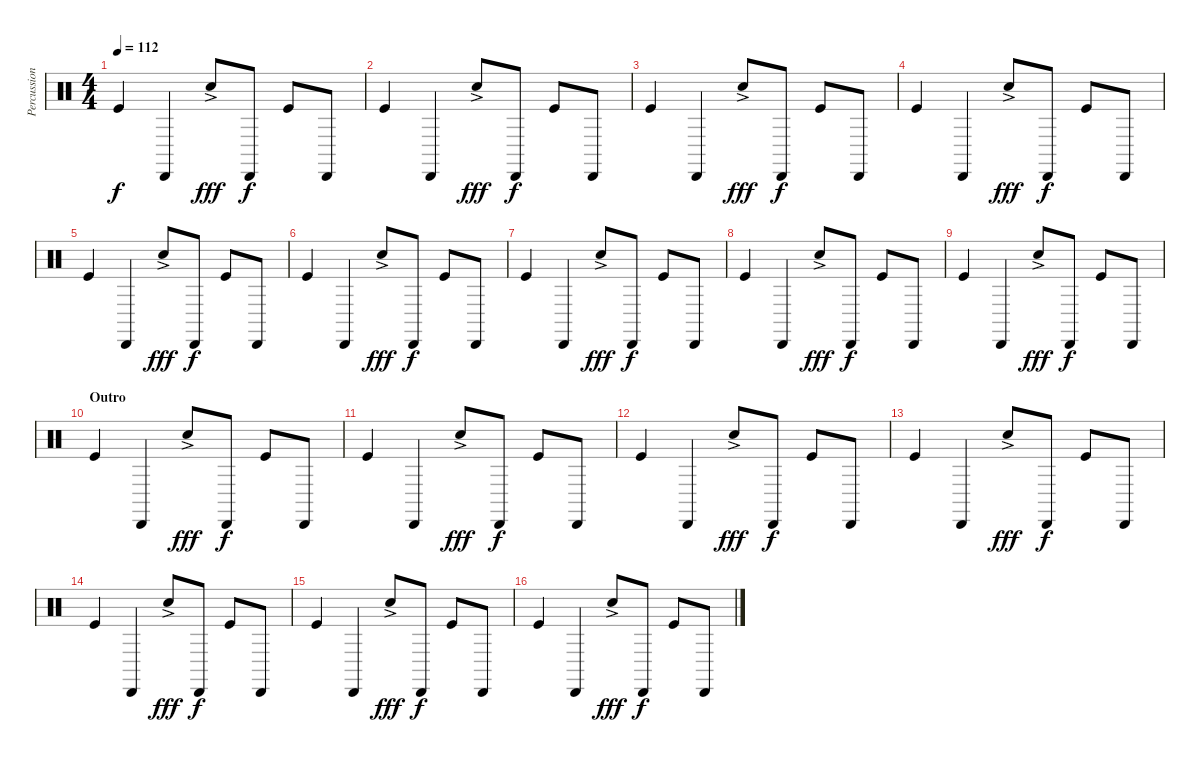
\track ("Percussion" "Percussion") {instrument percussion}
\staff {score}
\articulation defaults
\ts (4 4)
\tempo 112
\clef neutral
\ks c "Kick (hit)".4{dy f} "Cabasa (hit)".4 "Snare (hit) 2"{ac}.8{dy fff} "Cabasa (hit)".8{dy f} "Kick (hit)".8 "Cabasa (hit)".8
|
"Kick (hit)".4 "Cabasa (hit)".4 "Snare (hit) 2"{ac}.8{dy fff} "Cabasa (hit)".8{dy f} "Kick (hit)".8 "Cabasa (hit)".8 |
"Kick (hit)".4 "Cabasa (hit)".4 "Snare (hit) 2"{ac}.8{dy fff} "Cabasa (hit)".8{dy f} "Kick (hit)".8 "Cabasa (hit)".8 |
"Kick (hit)".4 "Cabasa (hit)".4 "Snare (hit) 2"{ac}.8{dy fff} "Cabasa (hit)".8{dy f} "Kick (hit)".8 "Cabasa (hit)".8 |
"Kick (hit)".4 "Cabasa (hit)".4 "Snare (hit) 2"{ac}.8{dy fff} "Cabasa (hit)".8{dy f} "Kick (hit)".8 "Cabasa (hit)".8 |
"Kick (hit)".4 "Cabasa (hit)".4 "Snare (hit) 2"{ac}.8{dy fff} "Cabasa (hit)".8{dy f} "Kick (hit)".8 "Cabasa (hit)".8 |
"Kick (hit)".4 "Cabasa (hit)".4 "Snare (hit) 2"{ac}.8{dy fff} "Cabasa (hit)".8{dy f} "Kick (hit)".8 "Cabasa (hit)".8 |
"Kick (hit)".4 "Cabasa (hit)".4 "Snare (hit) 2"{ac}.8{dy fff} "Cabasa (hit)".8{dy f} "Kick (hit)".8 "Cabasa (hit)".8 |
"Kick (hit)".4 "Cabasa (hit)".4 "Snare (hit) 2"{ac}.8{dy fff} "Cabasa (hit)".8{dy f} "Kick (hit)".8 "Cabasa (hit)".8 |
\section ("" "Outro")
"Kick (hit)".4 "Cabasa (hit)".4 "Snare (hit) 2"{ac}.8{dy fff} "Cabasa (hit)".8{dy f} "Kick (hit)".8 "Cabasa (hit)".8 |
"Kick (hit)".4 "Cabasa (hit)".4 "Snare (hit) 2"{ac}.8{dy fff} "Cabasa (hit)".8{dy f} "Kick (hit)".8 "Cabasa (hit)".8 |
"Kick (hit)".4 "Cabasa (hit)".4 "Snare (hit) 2"{ac}.8{dy fff} "Cabasa (hit)".8{dy f} "Kick (hit)".8 "Cabasa (hit)".8 |
"Kick (hit)".4 "Cabasa (hit)".4 "Snare (hit) 2"{ac}.8{dy fff} "Cabasa (hit)".8{dy f} "Kick (hit)".8 "Cabasa (hit)".8 |
"Kick (hit)".4 "Cabasa (hit)".4 "Snare (hit) 2"{ac}.8{dy fff} "Cabasa (hit)".8{dy f} "Kick (hit)".8 "Cabasa (hit)".8 |
"Kick (hit)".4 "Cabasa (hit)".4 "Snare (hit) 2"{ac}.8{dy fff} "Cabasa (hit)".8{dy f} "Kick (hit)".8 "Cabasa (hit)".8 |
"Kick (hit)".4 "Cabasa (hit)".4 "Snare (hit) 2"{ac}.8{dy fff} "Cabasa (hit)".8{dy f} "Kick (hit)".8 "Cabasa (hit)".8
